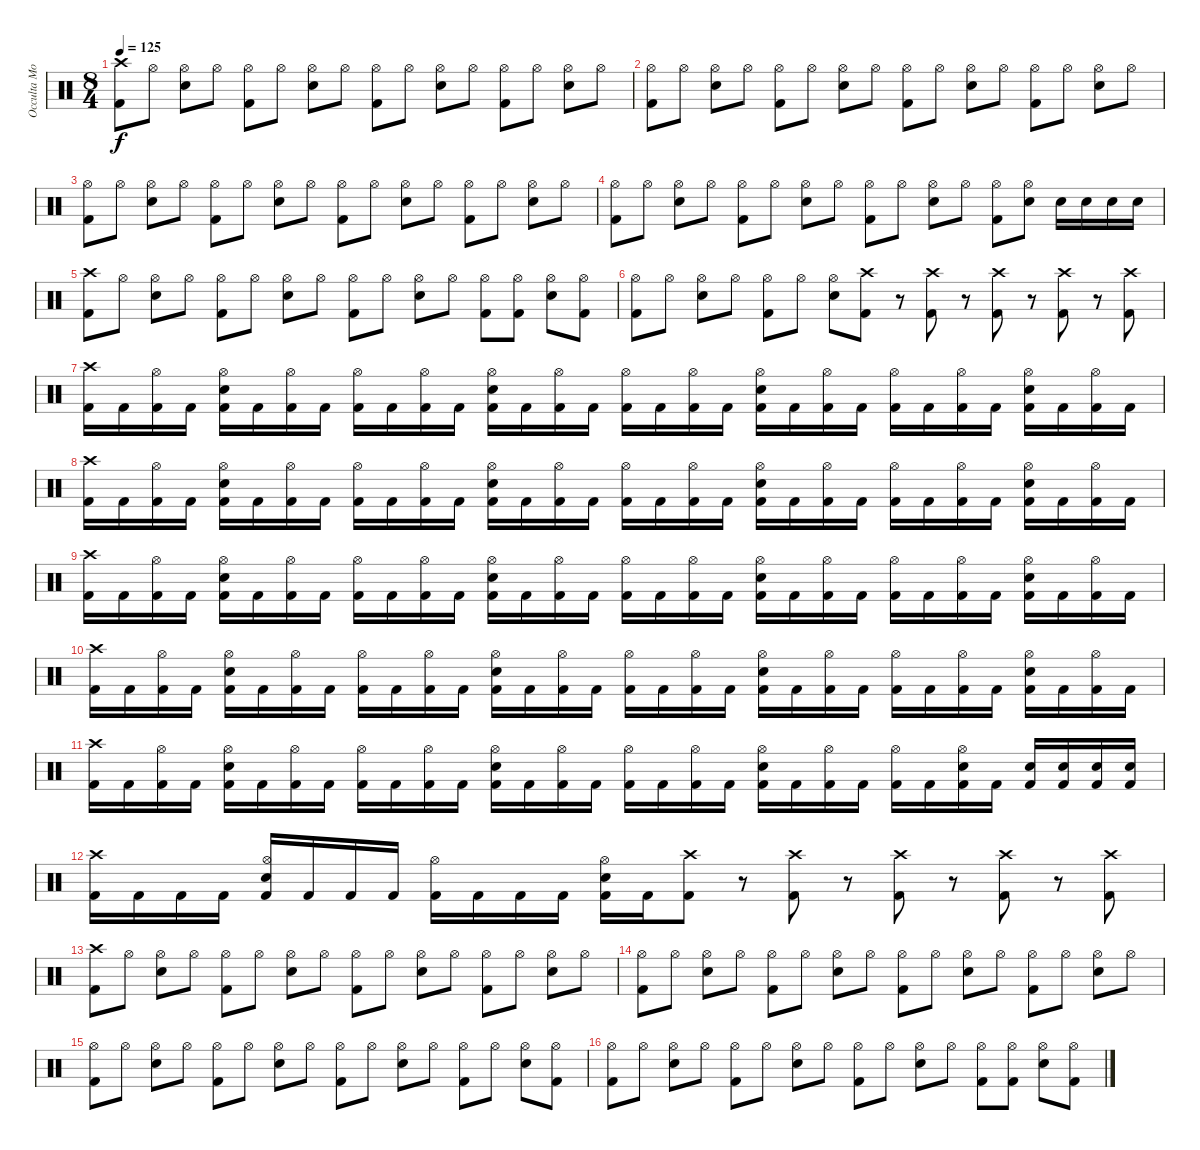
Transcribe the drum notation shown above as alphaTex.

\track ("Occulta Mors" "Occulta Mo") {instrument percussion}
\staff {score}
\articulation defaults
\ts (8 4)
\tempo 125
\clef neutral
\ks c
("Crash high (hit)" "Kick (hit) 2").8{dy f} "Hi-Hat (open)".8 ("Hi-Hat (open)" "Snare (hit) 2").8 "Hi-Hat (open)".8 ("Hi-Hat (open)" "Kick (hit) 2").8 "Hi-Hat (open)".8 ("Hi-Hat (open)" "Snare (hit) 2").8 "Hi-Hat (open)".8 ("Hi-Hat (open)" "Kick (hit) 2").8 "Hi-Hat (open)".8 ("Hi-Hat (open)" "Snare (hit) 2").8 "Hi-Hat (open)".8 ("Hi-Hat (open)" "Kick (hit) 2").8 "Hi-Hat (open)".8 ("Hi-Hat (open)" "Snare (hit) 2").8 "Hi-Hat (open)".8 |
("Hi-Hat (open)" "Kick (hit) 2").8 "Hi-Hat (open)".8 ("Hi-Hat (open)" "Snare (hit) 2").8 "Hi-Hat (open)".8 ("Hi-Hat (open)" "Kick (hit) 2").8 "Hi-Hat (open)".8 ("Hi-Hat (open)" "Snare (hit) 2").8 "Hi-Hat (open)".8 ("Hi-Hat (open)" "Kick (hit) 2").8 "Hi-Hat (open)".8 ("Hi-Hat (open)" "Snare (hit) 2").8 "Hi-Hat (open)".8 ("Hi-Hat (open)" "Kick (hit) 2").8 "Hi-Hat (open)".8 ("Hi-Hat (open)" "Snare (hit) 2").8 "Hi-Hat (open)".8 |
("Hi-Hat (open)" "Kick (hit) 2").8 "Hi-Hat (open)".8 ("Hi-Hat (open)" "Snare (hit) 2").8 "Hi-Hat (open)".8 ("Hi-Hat (open)" "Kick (hit) 2").8 "Hi-Hat (open)".8 ("Hi-Hat (open)" "Snare (hit) 2").8 "Hi-Hat (open)".8 ("Hi-Hat (open)" "Kick (hit) 2").8 "Hi-Hat (open)".8 ("Hi-Hat (open)" "Snare (hit) 2").8 "Hi-Hat (open)".8 ("Hi-Hat (open)" "Kick (hit) 2").8 "Hi-Hat (open)".8 ("Hi-Hat (open)" "Snare (hit) 2").8 "Hi-Hat (open)".8 |
("Hi-Hat (open)" "Kick (hit) 2").8 "Hi-Hat (open)".8 ("Hi-Hat (open)" "Snare (hit) 2").8 "Hi-Hat (open)".8 ("Hi-Hat (open)" "Kick (hit) 2").8 "Hi-Hat (open)".8 ("Hi-Hat (open)" "Snare (hit) 2").8 "Hi-Hat (open)".8 ("Hi-Hat (open)" "Kick (hit) 2").8 "Hi-Hat (open)".8 ("Hi-Hat (open)" "Snare (hit) 2").8 "Hi-Hat (open)".8 ("Hi-Hat (open)" "Kick (hit) 2").8 ("Hi-Hat (open)" "Snare (hit) 2").8 "Snare (hit) 2".16 "Snare (hit) 2".16 "Snare (hit) 2".16 "Snare (hit) 2".16 |
("Crash high (hit)" "Kick (hit) 2").8 "Hi-Hat (open)".8 ("Hi-Hat (open)" "Snare (hit) 2").8 "Hi-Hat (open)".8 ("Hi-Hat (open)" "Kick (hit) 2").8 "Hi-Hat (open)".8 ("Hi-Hat (open)" "Snare (hit) 2").8 "Hi-Hat (open)".8 ("Hi-Hat (open)" "Kick (hit) 2").8 "Hi-Hat (open)".8 ("Hi-Hat (open)" "Snare (hit) 2").8 "Hi-Hat (open)".8 ("Hi-Hat (open)" "Kick (hit) 2").8 ("Hi-Hat (open)" "Kick (hit) 2").8 ("Hi-Hat (open)" "Snare (hit) 2").8 ("Hi-Hat (open)" "Kick (hit) 2").8 |
("Hi-Hat (open)" "Kick (hit) 2").8 "Hi-Hat (open)".8 ("Hi-Hat (open)" "Snare (hit) 2").8 "Hi-Hat (open)".8 ("Hi-Hat (open)" "Kick (hit) 2").8 "Hi-Hat (open)".8 ("Hi-Hat (open)" "Snare (hit) 2").8 ("Crash high (hit)" "Kick (hit) 2").8 r.8 ("Crash high (hit)" "Kick (hit) 2").8 r.8 ("Crash high (hit)" "Kick (hit) 2").8 r.8 ("Crash high (hit)" "Kick (hit) 2").8 r.8 ("Crash high (hit)" "Kick (hit) 2").8 |
("Crash high (hit)" "Kick (hit) 2").16 "Kick (hit) 2".16 ("Hi-Hat (open)" "Kick (hit) 2").16 "Kick (hit) 2".16 ("Hi-Hat (open)" "Snare (hit) 2" "Kick (hit) 2").16 "Kick (hit) 2".16 ("Hi-Hat (open)" "Kick (hit) 2").16 "Kick (hit) 2".16 ("Hi-Hat (open)" "Kick (hit) 2").16 "Kick (hit) 2".16 ("Hi-Hat (open)" "Kick (hit) 2").16 "Kick (hit) 2".16 ("Hi-Hat (open)" "Snare (hit) 2" "Kick (hit) 2").16 "Kick (hit) 2".16 ("Hi-Hat (open)" "Kick (hit) 2").16 "Kick (hit) 2".16 ("Hi-Hat (open)" "Kick (hit) 2").16 "Kick (hit) 2".16 ("Hi-Hat (open)" "Kick (hit) 2").16 "Kick (hit) 2".16 ("Hi-Hat (open)" "Snare (hit) 2" "Kick (hit) 2").16 "Kick (hit) 2".16 ("Hi-Hat (open)" "Kick (hit) 2").16 "Kick (hit) 2".16 ("Hi-Hat (open)" "Kick (hit) 2").16 "Kick (hit) 2".16 ("Hi-Hat (open)" "Kick (hit) 2").16 "Kick (hit) 2".16 ("Hi-Hat (open)" "Snare (hit) 2" "Kick (hit) 2").16 "Kick (hit) 2".16 ("Hi-Hat (open)" "Kick (hit) 2").16 "Kick (hit) 2".16 |
("Crash high (hit)" "Kick (hit) 2").16 "Kick (hit) 2".16 ("Hi-Hat (open)" "Kick (hit) 2").16 "Kick (hit) 2".16 ("Hi-Hat (open)" "Snare (hit) 2" "Kick (hit) 2").16 "Kick (hit) 2".16 ("Hi-Hat (open)" "Kick (hit) 2").16 "Kick (hit) 2".16 ("Hi-Hat (open)" "Kick (hit) 2").16 "Kick (hit) 2".16 ("Hi-Hat (open)" "Kick (hit) 2").16 "Kick (hit) 2".16 ("Hi-Hat (open)" "Snare (hit) 2" "Kick (hit) 2").16 "Kick (hit) 2".16 ("Hi-Hat (open)" "Kick (hit) 2").16 "Kick (hit) 2".16 ("Hi-Hat (open)" "Kick (hit) 2").16 "Kick (hit) 2".16 ("Hi-Hat (open)" "Kick (hit) 2").16 "Kick (hit) 2".16 ("Hi-Hat (open)" "Snare (hit) 2" "Kick (hit) 2").16 "Kick (hit) 2".16 ("Hi-Hat (open)" "Kick (hit) 2").16 "Kick (hit) 2".16 ("Hi-Hat (open)" "Kick (hit) 2").16 "Kick (hit) 2".16 ("Hi-Hat (open)" "Kick (hit) 2").16 "Kick (hit) 2".16 ("Hi-Hat (open)" "Snare (hit) 2" "Kick (hit) 2").16 "Kick (hit) 2".16 ("Hi-Hat (open)" "Kick (hit) 2").16 "Kick (hit) 2".16 |
("Crash high (hit)" "Kick (hit) 2").16 "Kick (hit) 2".16 ("Hi-Hat (open)" "Kick (hit) 2").16 "Kick (hit) 2".16 ("Hi-Hat (open)" "Snare (hit) 2" "Kick (hit) 2").16 "Kick (hit) 2".16 ("Hi-Hat (open)" "Kick (hit) 2").16 "Kick (hit) 2".16 ("Hi-Hat (open)" "Kick (hit) 2").16 "Kick (hit) 2".16 ("Hi-Hat (open)" "Kick (hit) 2").16 "Kick (hit) 2".16 ("Hi-Hat (open)" "Snare (hit) 2" "Kick (hit) 2").16 "Kick (hit) 2".16 ("Hi-Hat (open)" "Kick (hit) 2").16 "Kick (hit) 2".16 ("Hi-Hat (open)" "Kick (hit) 2").16 "Kick (hit) 2".16 ("Hi-Hat (open)" "Kick (hit) 2").16 "Kick (hit) 2".16 ("Hi-Hat (open)" "Snare (hit) 2" "Kick (hit) 2").16 "Kick (hit) 2".16 ("Hi-Hat (open)" "Kick (hit) 2").16 "Kick (hit) 2".16 ("Hi-Hat (open)" "Kick (hit) 2").16 "Kick (hit) 2".16 ("Hi-Hat (open)" "Kick (hit) 2").16 "Kick (hit) 2".16 ("Hi-Hat (open)" "Snare (hit) 2" "Kick (hit) 2").16 "Kick (hit) 2".16 ("Hi-Hat (open)" "Kick (hit) 2").16 "Kick (hit) 2".16 |
("Crash high (hit)" "Kick (hit) 2").16 "Kick (hit) 2".16 ("Hi-Hat (open)" "Kick (hit) 2").16 "Kick (hit) 2".16 ("Hi-Hat (open)" "Snare (hit) 2" "Kick (hit) 2").16 "Kick (hit) 2".16 ("Hi-Hat (open)" "Kick (hit) 2").16 "Kick (hit) 2".16 ("Hi-Hat (open)" "Kick (hit) 2").16 "Kick (hit) 2".16 ("Hi-Hat (open)" "Kick (hit) 2").16 "Kick (hit) 2".16 ("Hi-Hat (open)" "Snare (hit) 2" "Kick (hit) 2").16 "Kick (hit) 2".16 ("Hi-Hat (open)" "Kick (hit) 2").16 "Kick (hit) 2".16 ("Hi-Hat (open)" "Kick (hit) 2").16 "Kick (hit) 2".16 ("Hi-Hat (open)" "Kick (hit) 2").16 "Kick (hit) 2".16 ("Hi-Hat (open)" "Snare (hit) 2" "Kick (hit) 2").16 "Kick (hit) 2".16 ("Hi-Hat (open)" "Kick (hit) 2").16 "Kick (hit) 2".16 ("Hi-Hat (open)" "Kick (hit) 2").16 "Kick (hit) 2".16 ("Hi-Hat (open)" "Kick (hit) 2").16 "Kick (hit) 2".16 ("Hi-Hat (open)" "Snare (hit) 2" "Kick (hit) 2").16 "Kick (hit) 2".16 ("Hi-Hat (open)" "Kick (hit) 2").16 "Kick (hit) 2".16 |
("Crash high (hit)" "Kick (hit) 2").16 "Kick (hit) 2".16 ("Hi-Hat (open)" "Kick (hit) 2").16 "Kick (hit) 2".16 ("Hi-Hat (open)" "Snare (hit) 2" "Kick (hit) 2").16 "Kick (hit) 2".16 ("Hi-Hat (open)" "Kick (hit) 2").16 "Kick (hit) 2".16 ("Hi-Hat (open)" "Kick (hit) 2").16 "Kick (hit) 2".16 ("Hi-Hat (open)" "Kick (hit) 2").16 "Kick (hit) 2".16 ("Hi-Hat (open)" "Snare (hit) 2" "Kick (hit) 2").16 "Kick (hit) 2".16 ("Hi-Hat (open)" "Kick (hit) 2").16 "Kick (hit) 2".16 ("Hi-Hat (open)" "Kick (hit) 2").16 "Kick (hit) 2".16 ("Hi-Hat (open)" "Kick (hit) 2").16 "Kick (hit) 2".16 ("Hi-Hat (open)" "Snare (hit) 2" "Kick (hit) 2").16 "Kick (hit) 2".16 ("Hi-Hat (open)" "Kick (hit) 2").16 "Kick (hit) 2".16 ("Hi-Hat (open)" "Kick (hit) 2").16 "Kick (hit) 2".16 ("Hi-Hat (open)" "Snare (hit) 2" "Kick (hit) 2").16 "Kick (hit) 2".16 ("Snare (hit) 2" "Kick (hit) 2").16 ("Snare (hit) 2" "Kick (hit) 2").16 ("Snare (hit) 2" "Kick (hit) 2").16 ("Snare (hit) 2" "Kick (hit) 2").16 |
("Crash high (hit)" "Kick (hit) 2").16 "Kick (hit) 2".16 "Kick (hit) 2".16 "Kick (hit) 2".16 ("Hi-Hat (open)" "Snare (hit) 2" "Kick (hit) 2").16 "Kick (hit) 2".16 "Kick (hit) 2".16 "Kick (hit) 2".16 ("Hi-Hat (open)" "Kick (hit) 2").16 "Kick (hit) 2".16 "Kick (hit) 2".16 "Kick (hit) 2".16 ("Hi-Hat (open)" "Snare (hit) 2" "Kick (hit) 2").16 "Kick (hit) 2".16 ("Crash high (hit)" "Kick (hit) 2").8 r.8 ("Crash high (hit)" "Kick (hit) 2").8 r.8 ("Crash high (hit)" "Kick (hit) 2").8 r.8 ("Crash high (hit)" "Kick (hit) 2").8 r.8 ("Crash high (hit)" "Kick (hit) 2").8 |
("Crash high (hit)" "Kick (hit) 2").8 "Hi-Hat (open)".8 ("Hi-Hat (open)" "Snare (hit) 2").8 "Hi-Hat (open)".8 ("Hi-Hat (open)" "Kick (hit) 2").8 "Hi-Hat (open)".8 ("Hi-Hat (open)" "Snare (hit) 2").8 "Hi-Hat (open)".8 ("Hi-Hat (open)" "Kick (hit) 2").8 "Hi-Hat (open)".8 ("Hi-Hat (open)" "Snare (hit) 2").8 "Hi-Hat (open)".8 ("Hi-Hat (open)" "Kick (hit) 2").8 "Hi-Hat (open)".8 ("Hi-Hat (open)" "Snare (hit) 2").8 "Hi-Hat (open)".8 |
("Hi-Hat (open)" "Kick (hit) 2").8 "Hi-Hat (open)".8 ("Hi-Hat (open)" "Snare (hit) 2").8 "Hi-Hat (open)".8 ("Hi-Hat (open)" "Kick (hit) 2").8 "Hi-Hat (open)".8 ("Hi-Hat (open)" "Snare (hit) 2").8 "Hi-Hat (open)".8 ("Hi-Hat (open)" "Kick (hit) 2").8 "Hi-Hat (open)".8 ("Hi-Hat (open)" "Snare (hit) 2").8 "Hi-Hat (open)".8 ("Hi-Hat (open)" "Kick (hit) 2").8 "Hi-Hat (open)".8 ("Hi-Hat (open)" "Snare (hit) 2").8 "Hi-Hat (open)".8 |
("Hi-Hat (open)" "Kick (hit) 2").8 "Hi-Hat (open)".8 ("Hi-Hat (open)" "Snare (hit) 2").8 "Hi-Hat (open)".8 ("Hi-Hat (open)" "Kick (hit) 2").8 "Hi-Hat (open)".8 ("Hi-Hat (open)" "Snare (hit) 2").8 "Hi-Hat (open)".8 ("Hi-Hat (open)" "Kick (hit) 2").8 "Hi-Hat (open)".8 ("Hi-Hat (open)" "Snare (hit) 2").8 "Hi-Hat (open)".8 ("Hi-Hat (open)" "Kick (hit) 2").8 "Hi-Hat (open)".8 ("Hi-Hat (open)" "Snare (hit) 2").8 ("Hi-Hat (open)" "Kick (hit) 2").8 |
("Hi-Hat (open)" "Kick (hit) 2").8 "Hi-Hat (open)".8 ("Hi-Hat (open)" "Snare (hit) 2").8 "Hi-Hat (open)".8 ("Hi-Hat (open)" "Kick (hit) 2").8 "Hi-Hat (open)".8 ("Hi-Hat (open)" "Snare (hit) 2").8 "Hi-Hat (open)".8 ("Hi-Hat (open)" "Kick (hit) 2").8 "Hi-Hat (open)".8 ("Hi-Hat (open)" "Snare (hit) 2").8 "Hi-Hat (open)".8 ("Hi-Hat (open)" "Kick (hit) 2").8 ("Hi-Hat (open)" "Kick (hit) 2").8 ("Hi-Hat (open)" "Snare (hit) 2").8 ("Hi-Hat (open)" "Kick (hit) 2").8
